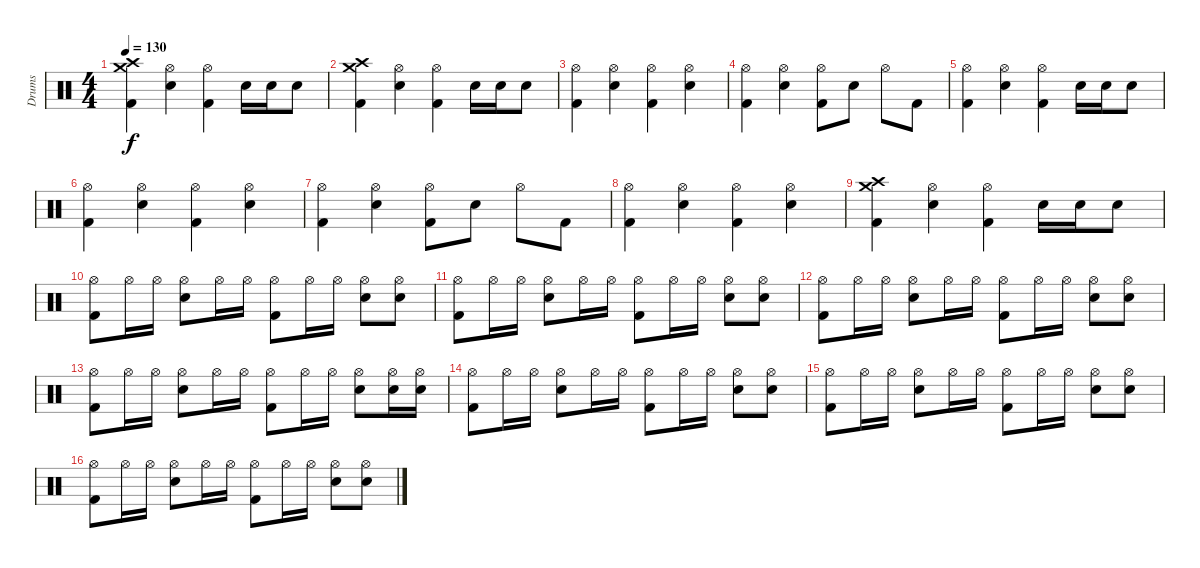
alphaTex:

\track ("Drums" "Drums") {instrument percussion}
\staff {score}
\articulation defaults
\ts (4 4)
\tempo 130
\clef neutral
\ks c
("Crash medium (hit)" "Crash high (hit)" "Kick (hit) 2").4{dy f} ("Hi-Hat (open)" "Snare (hit) 2").4 ("Hi-Hat (open)" "Kick (hit) 2").4 "Snare (hit) 2".16 "Snare (hit) 2".16 "Snare (hit) 2".8 |
("Crash medium (hit)" "Crash high (hit)" "Kick (hit) 2").4 ("Hi-Hat (open)" "Snare (hit) 2").4 ("Hi-Hat (open)" "Kick (hit) 2").4 "Snare (hit) 2".16 "Snare (hit) 2".16 "Snare (hit) 2".8 |
("Hi-Hat (open)" "Kick (hit) 2").4 ("Hi-Hat (open)" "Snare (hit) 2").4 ("Hi-Hat (open)" "Kick (hit) 2").4 ("Hi-Hat (open)" "Snare (hit) 2").4 |
("Hi-Hat (open)" "Kick (hit) 2").4 ("Hi-Hat (open)" "Snare (hit) 2").4 ("Hi-Hat (open)" "Kick (hit) 2").8 "Snare (hit) 2".8 "Hi-Hat (open)".8 "Kick (hit) 2".8 |
("Hi-Hat (open)" "Kick (hit) 2").4 ("Hi-Hat (open)" "Snare (hit) 2").4 ("Hi-Hat (open)" "Kick (hit) 2").4 "Snare (hit) 2".16 "Snare (hit) 2".16 "Snare (hit) 2".8 |
("Hi-Hat (open)" "Kick (hit) 2").4 ("Hi-Hat (open)" "Snare (hit) 2").4 ("Hi-Hat (open)" "Kick (hit) 2").4 ("Hi-Hat (open)" "Snare (hit) 2").4 |
("Hi-Hat (open)" "Kick (hit) 2").4 ("Hi-Hat (open)" "Snare (hit) 2").4 ("Hi-Hat (open)" "Kick (hit) 2").8 "Snare (hit) 2".8 "Hi-Hat (open)".8 "Kick (hit) 2".8 |
("Hi-Hat (open)" "Kick (hit) 2").4 ("Hi-Hat (open)" "Snare (hit) 2").4 ("Hi-Hat (open)" "Kick (hit) 2").4 ("Hi-Hat (open)" "Snare (hit) 2").4 |
("Crash medium (hit)" "Crash high (hit)" "Kick (hit) 2").4 ("Hi-Hat (open)" "Snare (hit) 2").4 ("Hi-Hat (open)" "Kick (hit) 2").4 "Snare (hit) 2".16 "Snare (hit) 2".16 "Snare (hit) 2".8 |
("Hi-Hat (open)" "Kick (hit) 2").8 "Hi-Hat (open)".16 "Hi-Hat (open)".16 ("Hi-Hat (open)" "Snare (hit) 2").8 "Hi-Hat (open)".16 "Hi-Hat (open)".16 ("Hi-Hat (open)" "Kick (hit) 2").8 "Hi-Hat (open)".16 "Hi-Hat (open)".16 ("Hi-Hat (open)" "Snare (hit) 2").8 ("Hi-Hat (open)" "Snare (hit) 2").8 |
("Hi-Hat (open)" "Kick (hit) 2").8 "Hi-Hat (open)".16 "Hi-Hat (open)".16 ("Hi-Hat (open)" "Snare (hit) 2").8 "Hi-Hat (open)".16 "Hi-Hat (open)".16 ("Hi-Hat (open)" "Kick (hit) 2").8 "Hi-Hat (open)".16 "Hi-Hat (open)".16 ("Hi-Hat (open)" "Snare (hit) 2").8 ("Hi-Hat (open)" "Snare (hit) 2").8 |
("Hi-Hat (open)" "Kick (hit) 2").8 "Hi-Hat (open)".16 "Hi-Hat (open)".16 ("Hi-Hat (open)" "Snare (hit) 2").8 "Hi-Hat (open)".16 "Hi-Hat (open)".16 ("Hi-Hat (open)" "Kick (hit) 2").8 "Hi-Hat (open)".16 "Hi-Hat (open)".16 ("Hi-Hat (open)" "Snare (hit) 2").8 ("Hi-Hat (open)" "Snare (hit) 2").8 |
("Hi-Hat (open)" "Kick (hit) 2").8 "Hi-Hat (open)".16 "Hi-Hat (open)".16 ("Hi-Hat (open)" "Snare (hit) 2").8 "Hi-Hat (open)".16 "Hi-Hat (open)".16 ("Hi-Hat (open)" "Kick (hit) 2").8 "Hi-Hat (open)".16 "Hi-Hat (open)".16 ("Hi-Hat (open)" "Snare (hit) 2").8 ("Hi-Hat (open)" "Snare (hit) 2").16 ("Hi-Hat (open)" "Snare (hit) 2").16 |
("Hi-Hat (open)" "Kick (hit) 2").8 "Hi-Hat (open)".16 "Hi-Hat (open)".16 ("Hi-Hat (open)" "Snare (hit) 2").8 "Hi-Hat (open)".16 "Hi-Hat (open)".16 ("Hi-Hat (open)" "Kick (hit) 2").8 "Hi-Hat (open)".16 "Hi-Hat (open)".16 ("Hi-Hat (open)" "Snare (hit) 2").8 ("Hi-Hat (open)" "Snare (hit) 2").8 |
("Hi-Hat (open)" "Kick (hit) 2").8 "Hi-Hat (open)".16 "Hi-Hat (open)".16 ("Hi-Hat (open)" "Snare (hit) 2").8 "Hi-Hat (open)".16 "Hi-Hat (open)".16 ("Hi-Hat (open)" "Kick (hit) 2").8 "Hi-Hat (open)".16 "Hi-Hat (open)".16 ("Hi-Hat (open)" "Snare (hit) 2").8 ("Hi-Hat (open)" "Snare (hit) 2").8 |
("Hi-Hat (open)" "Kick (hit) 2").8 "Hi-Hat (open)".16 "Hi-Hat (open)".16 ("Hi-Hat (open)" "Snare (hit) 2").8 "Hi-Hat (open)".16 "Hi-Hat (open)".16 ("Hi-Hat (open)" "Kick (hit) 2").8 "Hi-Hat (open)".16 "Hi-Hat (open)".16 ("Hi-Hat (open)" "Snare (hit) 2").8 ("Hi-Hat (open)" "Snare (hit) 2").8
